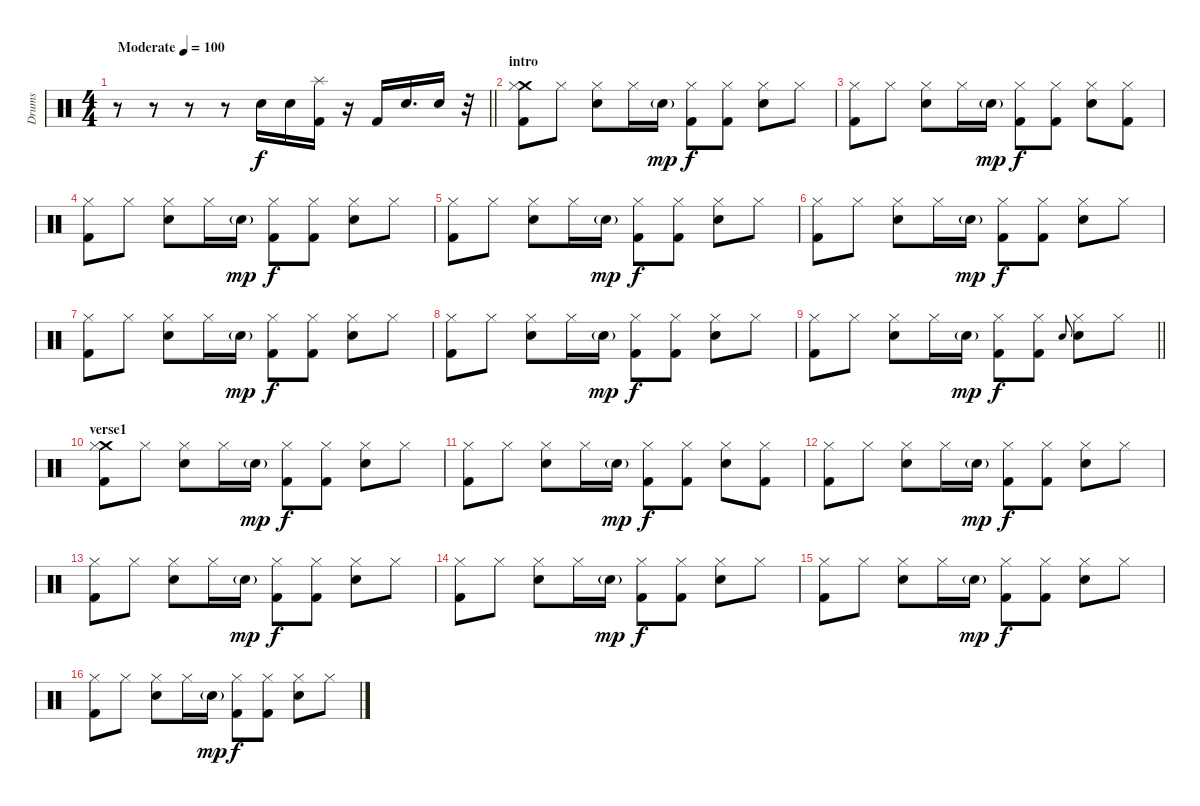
\track ("Drums" "Drums") {instrument percussion}
\staff {score}
\articulation defaults
\ts (4 4)
\tempo (100 "Moderate")
\clef neutral
\barLineRight lightlight
\ks c
r.8{dy f} r.8 r.8 r.8 "Electric Snare (hit)".16 "Electric Snare (hit)".16 ("Kick (hit) 2" "Splash (hit)").16 r.16 "Kick (hit) 2".16 "Electric Snare (hit)".16{d} "Electric Snare (hit)".16 r.32 |
\section ("" "intro")
("Crash medium (hit)" "Kick (hit) 2" "Hi-Hat (closed)").8 "Hi-Hat (closed)".8 ("Electric Snare (hit)" "Hi-Hat (closed)").8 "Hi-Hat (closed)".16 "Electric Snare (hit)"{g}.16{dy mp} ("Kick (hit) 2" "Hi-Hat (closed)").8{dy f} ("Kick (hit) 2" "Hi-Hat (closed)").8 ("Electric Snare (hit)" "Hi-Hat (closed)").8 "Hi-Hat (closed)".8 |
("Kick (hit) 2" "Hi-Hat (closed)").8 "Hi-Hat (closed)".8 ("Electric Snare (hit)" "Hi-Hat (closed)").8 "Hi-Hat (closed)".16 "Electric Snare (hit)"{g}.16{dy mp} ("Kick (hit) 2" "Hi-Hat (closed)").8{dy f} ("Kick (hit) 2" "Hi-Hat (closed)").8 ("Electric Snare (hit)" "Hi-Hat (closed)").8 ("Kick (hit) 2" "Hi-Hat (closed)").8 |
("Kick (hit) 2" "Hi-Hat (closed)").8 "Hi-Hat (closed)".8 ("Electric Snare (hit)" "Hi-Hat (closed)").8 "Hi-Hat (closed)".16 "Electric Snare (hit)"{g}.16{dy mp} ("Kick (hit) 2" "Hi-Hat (closed)").8{dy f} ("Kick (hit) 2" "Hi-Hat (closed)").8 ("Electric Snare (hit)" "Hi-Hat (closed)").8 "Hi-Hat (closed)".8 |
("Kick (hit) 2" "Hi-Hat (closed)").8 "Hi-Hat (closed)".8 ("Electric Snare (hit)" "Hi-Hat (closed)").8 "Hi-Hat (closed)".16 "Electric Snare (hit)"{g}.16{dy mp} ("Kick (hit) 2" "Hi-Hat (closed)").8{dy f} ("Kick (hit) 2" "Hi-Hat (closed)").8 ("Electric Snare (hit)" "Hi-Hat (closed)").8 "Hi-Hat (closed)".8 |
("Kick (hit) 2" "Hi-Hat (closed)").8 "Hi-Hat (closed)".8 ("Electric Snare (hit)" "Hi-Hat (closed)").8 "Hi-Hat (closed)".16 "Electric Snare (hit)"{g}.16{dy mp} ("Kick (hit) 2" "Hi-Hat (closed)").8{dy f} ("Kick (hit) 2" "Hi-Hat (closed)").8 ("Electric Snare (hit)" "Hi-Hat (closed)").8 "Hi-Hat (closed)".8 |
("Kick (hit) 2" "Hi-Hat (closed)").8 "Hi-Hat (closed)".8 ("Electric Snare (hit)" "Hi-Hat (closed)").8 "Hi-Hat (closed)".16 "Electric Snare (hit)"{g}.16{dy mp} ("Kick (hit) 2" "Hi-Hat (closed)").8{dy f} ("Kick (hit) 2" "Hi-Hat (closed)").8 ("Electric Snare (hit)" "Hi-Hat (closed)").8 "Hi-Hat (closed)".8 |
("Kick (hit) 2" "Hi-Hat (closed)").8 "Hi-Hat (closed)".8 ("Electric Snare (hit)" "Hi-Hat (closed)").8 "Hi-Hat (closed)".16 "Electric Snare (hit)"{g}.16{dy mp} ("Kick (hit) 2" "Hi-Hat (closed)").8{dy f} ("Kick (hit) 2" "Hi-Hat (closed)").8 ("Electric Snare (hit)" "Hi-Hat (closed)").8 "Hi-Hat (closed)".8 |
\barLineRight lightlight
("Kick (hit) 2" "Hi-Hat (closed)").8 "Hi-Hat (closed)".8 ("Electric Snare (hit)" "Hi-Hat (closed)").8 "Hi-Hat (closed)".16 "Electric Snare (hit)"{g}.16{dy mp} ("Kick (hit) 2" "Hi-Hat (closed)").8{dy f} ("Kick (hit) 2" "Hi-Hat (closed)").8 "Electric Snare (hit)".8{gr onbeat} ("Electric Snare (hit)" "Hi-Hat (closed)").8 "Hi-Hat (closed)".8 |
\section ("" "verse1")
("Crash medium (hit)" "Kick (hit) 2" "Hi-Hat (closed)").8 "Hi-Hat (closed)".8 ("Electric Snare (hit)" "Hi-Hat (closed)").8 "Hi-Hat (closed)".16 "Electric Snare (hit)"{g}.16{dy mp} ("Kick (hit) 2" "Hi-Hat (closed)").8{dy f} ("Kick (hit) 2" "Hi-Hat (closed)").8 ("Electric Snare (hit)" "Hi-Hat (closed)").8 "Hi-Hat (closed)".8 |
("Kick (hit) 2" "Hi-Hat (closed)").8 "Hi-Hat (closed)".8 ("Electric Snare (hit)" "Hi-Hat (closed)").8 "Hi-Hat (closed)".16 "Electric Snare (hit)"{g}.16{dy mp} ("Kick (hit) 2" "Hi-Hat (closed)").8{dy f} ("Kick (hit) 2" "Hi-Hat (closed)").8 ("Electric Snare (hit)" "Hi-Hat (closed)").8 ("Kick (hit) 2" "Hi-Hat (closed)").8 |
("Kick (hit) 2" "Hi-Hat (closed)").8 "Hi-Hat (closed)".8 ("Electric Snare (hit)" "Hi-Hat (closed)").8 "Hi-Hat (closed)".16 "Electric Snare (hit)"{g}.16{dy mp} ("Kick (hit) 2" "Hi-Hat (closed)").8{dy f} ("Kick (hit) 2" "Hi-Hat (closed)").8 ("Electric Snare (hit)" "Hi-Hat (closed)").8 "Hi-Hat (closed)".8 |
("Kick (hit) 2" "Hi-Hat (closed)").8 "Hi-Hat (closed)".8 ("Electric Snare (hit)" "Hi-Hat (closed)").8 "Hi-Hat (closed)".16 "Electric Snare (hit)"{g}.16{dy mp} ("Kick (hit) 2" "Hi-Hat (closed)").8{dy f} ("Kick (hit) 2" "Hi-Hat (closed)").8 ("Electric Snare (hit)" "Hi-Hat (closed)").8 "Hi-Hat (closed)".8 |
("Kick (hit) 2" "Hi-Hat (closed)").8 "Hi-Hat (closed)".8 ("Electric Snare (hit)" "Hi-Hat (closed)").8 "Hi-Hat (closed)".16 "Electric Snare (hit)"{g}.16{dy mp} ("Kick (hit) 2" "Hi-Hat (closed)").8{dy f} ("Kick (hit) 2" "Hi-Hat (closed)").8 ("Electric Snare (hit)" "Hi-Hat (closed)").8 "Hi-Hat (closed)".8 |
("Kick (hit) 2" "Hi-Hat (closed)").8 "Hi-Hat (closed)".8 ("Electric Snare (hit)" "Hi-Hat (closed)").8 "Hi-Hat (closed)".16 "Electric Snare (hit)"{g}.16{dy mp} ("Kick (hit) 2" "Hi-Hat (closed)").8{dy f} ("Kick (hit) 2" "Hi-Hat (closed)").8 ("Electric Snare (hit)" "Hi-Hat (closed)").8 "Hi-Hat (closed)".8 |
("Kick (hit) 2" "Hi-Hat (closed)").8 "Hi-Hat (closed)".8 ("Electric Snare (hit)" "Hi-Hat (closed)").8 "Hi-Hat (closed)".16 "Electric Snare (hit)"{g}.16{dy mp} ("Kick (hit) 2" "Hi-Hat (closed)").8{dy f} ("Kick (hit) 2" "Hi-Hat (closed)").8 ("Electric Snare (hit)" "Hi-Hat (closed)").8 "Hi-Hat (closed)".8
